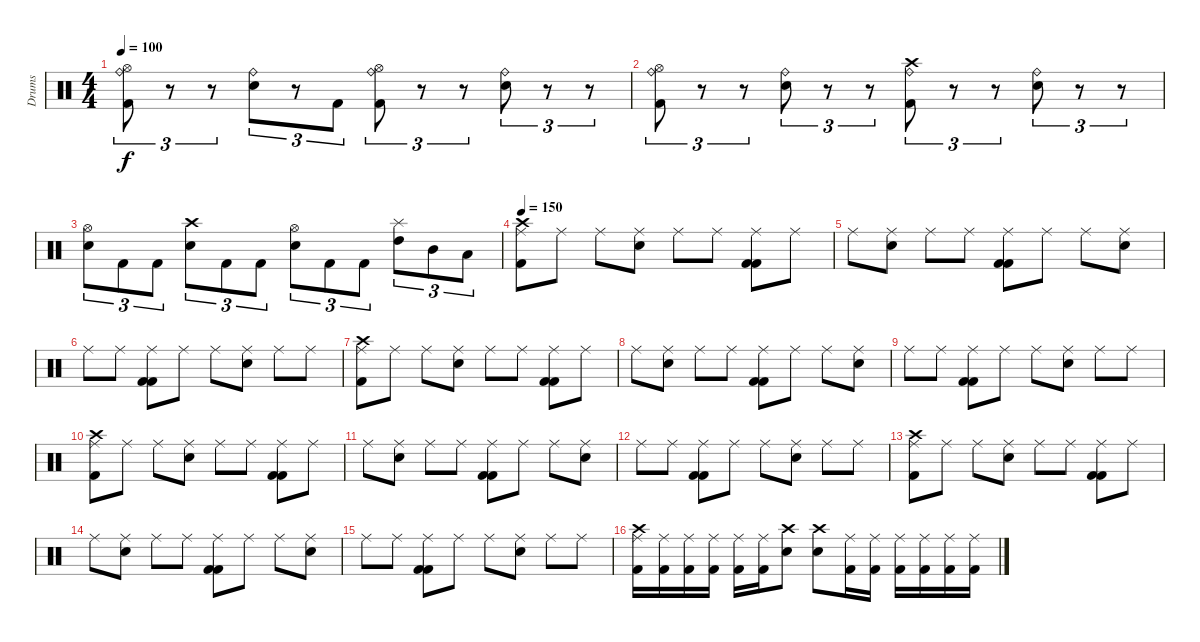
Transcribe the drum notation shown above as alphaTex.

\track ("Drums" "Drums") {instrument percussion}
\staff {score}
\articulation defaults
\ts (4 4)
\tempo 100
\clef neutral
\ks c
("Hi-Hat (open)" "Ride (bell)" "Kick (hit) 2").8{tu (3 2) dy f} r.8{tu (3 2)} r.8{tu (3 2)} ("Ride (bell)" "Electric Snare (hit)").8{tu (3 2)} r.8{tu (3 2)} "Kick (hit) 2".8{tu (3 2)} ("Hi-Hat (open)" "Ride (bell)" "Kick (hit) 2").8{tu (3 2)} r.8{tu (3 2)} r.8{tu (3 2)} ("Ride (bell)" "Electric Snare (hit)").8{tu (3 2)} r.8{tu (3 2)} r.8{tu (3 2)} |
("Hi-Hat (open)" "Ride (bell)" "Kick (hit) 2").8{tu (3 2)} r.8{tu (3 2)} r.8{tu (3 2)} ("Ride (bell)" "Electric Snare (hit)").8{tu (3 2)} r.8{tu (3 2)} r.8{tu (3 2)} ("Crash high (hit)" "Ride (bell)" "Kick (hit) 2").8{tu (3 2)} r.8{tu (3 2)} r.8{tu (3 2)} ("Ride (bell)" "Electric Snare (hit)").8{tu (3 2)} r.8{tu (3 2)} r.8{tu (3 2)} |
("Hi-Hat (open)" "Electric Snare (hit)").8{tu (3 2)} "Kick (hit) 2".8{tu (3 2)} "Kick (hit) 2".8{tu (3 2)} ("Crash high (hit)" "Electric Snare (hit)").8{tu (3 2)} "Kick (hit) 2".8{tu (3 2)} "Kick (hit) 2".8{tu (3 2)} ("Hi-Hat (open)" "Electric Snare (hit)").8{tu (3 2)} "Kick (hit) 2".8{tu (3 2)} "Kick (hit) 2".8{tu (3 2)} ("Splash (hit)" "High Tom (hit)").8{tu (3 2)} "Mid Tom (hit)".8{tu (3 2)} "Low Tom (hit)".8{tu (3 2)} |
\tempo 150
("Crash high (hit)" "Kick (hit) 2" "Ride (middle)").8 "Ride (middle)".8 "Ride (middle)".8 ("Snare (hit) 2" "Ride (middle)").8 "Ride (middle)".8 "Ride (middle)".8 ("Kick (hit) 2" "Kick (hit) 2" "Ride (middle)").8 "Ride (middle)".8 |
"Ride (middle)".8 ("Snare (hit) 2" "Ride (middle)").8 "Ride (middle)".8 "Ride (middle)".8 ("Kick (hit) 2" "Kick (hit) 2" "Ride (middle)").8 "Ride (middle)".8 "Ride (middle)".8 ("Snare (hit) 2" "Ride (middle)").8 |
"Ride (middle)".8 "Ride (middle)".8 ("Kick (hit) 2" "Kick (hit) 2" "Ride (middle)").8 "Ride (middle)".8 "Ride (middle)".8 ("Snare (hit) 2" "Ride (middle)").8 "Ride (middle)".8 "Ride (middle)".8 |
("Crash high (hit)" "Kick (hit) 2" "Ride (middle)").8 "Ride (middle)".8 "Ride (middle)".8 ("Snare (hit) 2" "Ride (middle)").8 "Ride (middle)".8 "Ride (middle)".8 ("Kick (hit) 2" "Kick (hit) 2" "Ride (middle)").8 "Ride (middle)".8 |
"Ride (middle)".8 ("Snare (hit) 2" "Ride (middle)").8 "Ride (middle)".8 "Ride (middle)".8 ("Kick (hit) 2" "Kick (hit) 2" "Ride (middle)").8 "Ride (middle)".8 "Ride (middle)".8 ("Snare (hit) 2" "Ride (middle)").8 |
"Ride (middle)".8 "Ride (middle)".8 ("Kick (hit) 2" "Kick (hit) 2" "Ride (middle)").8 "Ride (middle)".8 "Ride (middle)".8 ("Snare (hit) 2" "Ride (middle)").8 "Ride (middle)".8 "Ride (middle)".8 |
("Crash high (hit)" "Kick (hit) 2" "Ride (middle)").8 "Ride (middle)".8 "Ride (middle)".8 ("Snare (hit) 2" "Ride (middle)").8 "Ride (middle)".8 "Ride (middle)".8 ("Kick (hit) 2" "Kick (hit) 2" "Ride (middle)").8 "Ride (middle)".8 |
"Ride (middle)".8 ("Snare (hit) 2" "Ride (middle)").8 "Ride (middle)".8 "Ride (middle)".8 ("Kick (hit) 2" "Kick (hit) 2" "Ride (middle)").8 "Ride (middle)".8 "Ride (middle)".8 ("Snare (hit) 2" "Ride (middle)").8 |
"Ride (middle)".8 "Ride (middle)".8 ("Kick (hit) 2" "Kick (hit) 2" "Ride (middle)").8 "Ride (middle)".8 "Ride (middle)".8 ("Snare (hit) 2" "Ride (middle)").8 "Ride (middle)".8 "Ride (middle)".8 |
("Crash high (hit)" "Kick (hit) 2" "Ride (middle)").8 "Ride (middle)".8 "Ride (middle)".8 ("Snare (hit) 2" "Ride (middle)").8 "Ride (middle)".8 "Ride (middle)".8 ("Kick (hit) 2" "Kick (hit) 2" "Ride (middle)").8 "Ride (middle)".8 |
"Ride (middle)".8 ("Snare (hit) 2" "Ride (middle)").8 "Ride (middle)".8 "Ride (middle)".8 ("Kick (hit) 2" "Kick (hit) 2" "Ride (middle)").8 "Ride (middle)".8 "Ride (middle)".8 ("Snare (hit) 2" "Ride (middle)").8 |
"Ride (middle)".8 "Ride (middle)".8 ("Kick (hit) 2" "Kick (hit) 2" "Ride (middle)").8 "Ride (middle)".8 "Ride (middle)".8 ("Snare (hit) 2" "Ride (middle)").8 "Ride (middle)".8 "Ride (middle)".8 |
("Crash high (hit)" "Ride (middle)" "Kick (hit) 2").16 ("Ride (middle)" "Kick (hit) 2").16 ("Ride (middle)" "Kick (hit) 2").16 ("Ride (middle)" "Kick (hit) 2").16 ("Ride (middle)" "Kick (hit) 2").16 ("Ride (middle)" "Kick (hit) 2").16 ("Crash high (hit)" "Snare (hit) 2").8 ("Crash high (hit)" "Snare (hit) 2").8 ("Ride (middle)" "Kick (hit) 2").16 ("Ride (middle)" "Kick (hit) 2").16 ("Ride (middle)" "Kick (hit) 2").16 ("Ride (middle)" "Kick (hit) 2").16 ("Ride (middle)" "Kick (hit) 2").16 ("Ride (middle)" "Kick (hit) 2").16
